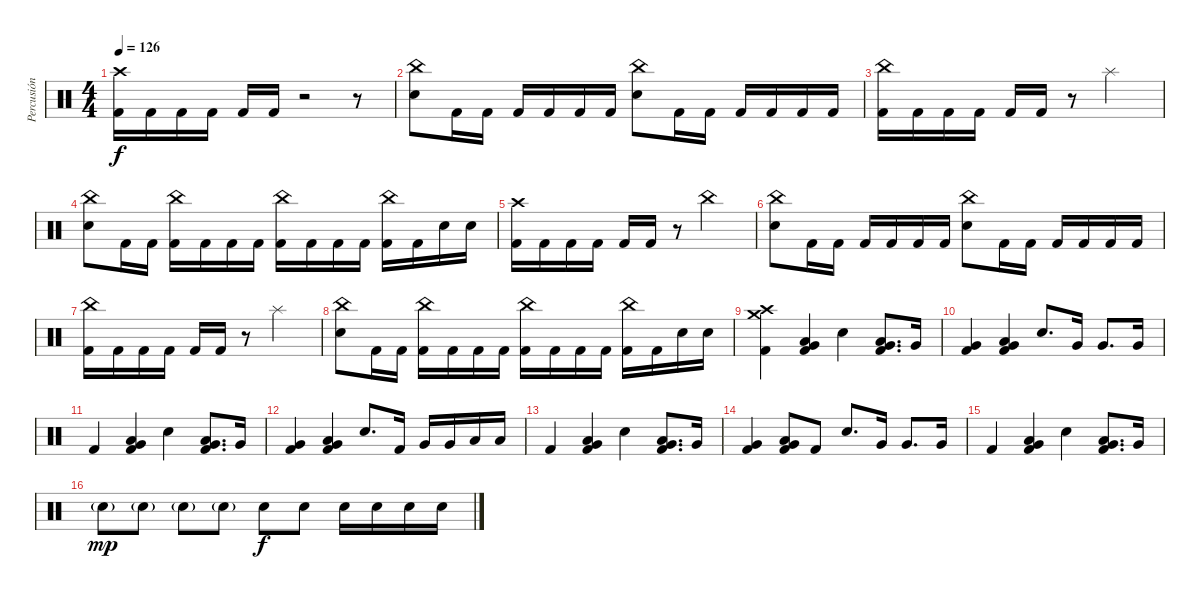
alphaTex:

\track ("Percusión" "Percusión") {instrument percussion}
\staff {score}
\articulation defaults
\ts (4 4)
\tempo 126
\clef neutral
\ks c
("Crash high (hit)" "Kick (hit) 2").16{dy f} "Kick (hit) 2".16 "Kick (hit) 2".16 "Kick (hit) 2".16 "Kick (hit) 2".16 "Kick (hit) 2".16 r.2 r.8 |
("China (hit)" "Electric Snare (hit)").8 "Kick (hit) 2".16 "Kick (hit) 2".16 "Kick (hit) 2".16 "Kick (hit) 2".16 "Kick (hit) 2".16 "Kick (hit) 2".16 ("China (hit)" "Electric Snare (hit)").8 "Kick (hit) 2".16 "Kick (hit) 2".16 "Kick (hit) 2".16 "Kick (hit) 2".16 "Kick (hit) 2".16 "Kick (hit) 2".16 |
("China (hit)" "Kick (hit) 2").16 "Kick (hit) 2".16 "Kick (hit) 2".16 "Kick (hit) 2".16 "Kick (hit) 2".16 "Kick (hit) 2".16 r.8 "Splash (hit)".2 |
("China (hit)" "Electric Snare (hit)").8 "Kick (hit) 2".16 "Kick (hit) 2".16 ("China (hit)" "Kick (hit) 2").16 "Kick (hit) 2".16 "Kick (hit) 2".16 "Kick (hit) 2".16 ("China (hit)" "Kick (hit) 2").16 "Kick (hit) 2".16 "Kick (hit) 2".16 "Kick (hit) 2".16 ("China (hit)" "Kick (hit) 2").16 "Kick (hit) 2".16 "Electric Snare (hit)".16 "Electric Snare (hit)".16 |
("Crash high (hit)" "Kick (hit) 2").16 "Kick (hit) 2".16 "Kick (hit) 2".16 "Kick (hit) 2".16 "Kick (hit) 2".16 "Kick (hit) 2".16 r.8 "China (hit)".2 |
("China (hit)" "Electric Snare (hit)").8 "Kick (hit) 2".16 "Kick (hit) 2".16 "Kick (hit) 2".16 "Kick (hit) 2".16 "Kick (hit) 2".16 "Kick (hit) 2".16 ("China (hit)" "Electric Snare (hit)").8 "Kick (hit) 2".16 "Kick (hit) 2".16 "Kick (hit) 2".16 "Kick (hit) 2".16 "Kick (hit) 2".16 "Kick (hit) 2".16 |
("China (hit)" "Kick (hit) 2").16 "Kick (hit) 2".16 "Kick (hit) 2".16 "Kick (hit) 2".16 "Kick (hit) 2".16 "Kick (hit) 2".16 r.8 "Splash (hit)".2 |
("China (hit)" "Electric Snare (hit)").8 "Kick (hit) 2".16 "Kick (hit) 2".16 ("China (hit)" "Kick (hit) 2").16 "Kick (hit) 2".16 "Kick (hit) 2".16 "Kick (hit) 2".16 ("China (hit)" "Kick (hit) 2").16 "Kick (hit) 2".16 "Kick (hit) 2".16 "Kick (hit) 2".16 ("China (hit)" "Kick (hit) 2").16 "Kick (hit) 2".16 "Electric Snare (hit)".16 "Electric Snare (hit)".16 |
("Crash high (hit)" "Crash medium (hit)" "Kick (hit) 2").4 ("Low Floor Tom (hit)" "Very Low Tom (hit)" "Kick (hit) 2").4 "Electric Snare (hit)".4 ("Low Floor Tom (hit)" "Very Low Tom (hit)" "Kick (hit) 2").8{d} "Very Low Tom (hit)".16 |
("Very Low Tom (hit)" "Kick (hit) 2").4 ("Low Floor Tom (hit)" "Very Low Tom (hit)" "Kick (hit) 2").4 "Electric Snare (hit)".8{d} "Very Low Tom (hit)".16 "Very Low Tom (hit)".8{d} "Very Low Tom (hit)".16 |
"Kick (hit) 2".4 ("Low Floor Tom (hit)" "Very Low Tom (hit)" "Kick (hit) 2").4 "Electric Snare (hit)".4 ("Low Floor Tom (hit)" "Very Low Tom (hit)" "Kick (hit) 2").8{d} "Very Low Tom (hit)".16 |
("Very Low Tom (hit)" "Kick (hit) 2").4 ("Low Floor Tom (hit)" "Very Low Tom (hit)" "Kick (hit) 2").4 "Electric Snare (hit)".8{d} "Kick (hit) 2".16 "Very Low Tom (hit)".16 "Very Low Tom (hit)".16 "Low Floor Tom (hit)".16 "Low Floor Tom (hit)".16 |
"Kick (hit) 2".4 ("Low Floor Tom (hit)" "Very Low Tom (hit)" "Kick (hit) 2").4 "Electric Snare (hit)".4 ("Low Floor Tom (hit)" "Very Low Tom (hit)" "Kick (hit) 2").8{d} "Very Low Tom (hit)".16 |
("Very Low Tom (hit)" "Kick (hit) 2").4 ("Low Floor Tom (hit)" "Very Low Tom (hit)" "Kick (hit) 2").8 "Kick (hit) 2".8 "Electric Snare (hit)".8{d} "Very Low Tom (hit)".16 "Very Low Tom (hit)".8{d} "Very Low Tom (hit)".16 |
"Kick (hit) 2".4 ("Low Floor Tom (hit)" "Very Low Tom (hit)" "Kick (hit) 2").4 "Electric Snare (hit)".4 ("Low Floor Tom (hit)" "Very Low Tom (hit)" "Kick (hit) 2").8{d} "Very Low Tom (hit)".16 |
"Electric Snare (hit)"{g}.8{dy mp} "Electric Snare (hit)"{g}.8 "Electric Snare (hit)"{g}.8 "Electric Snare (hit)"{g}.8 "Electric Snare (hit)".8{dy f} "Electric Snare (hit)".8 "Electric Snare (hit)".16 "Electric Snare (hit)".16 "Electric Snare (hit)".16 "Electric Snare (hit)".16
